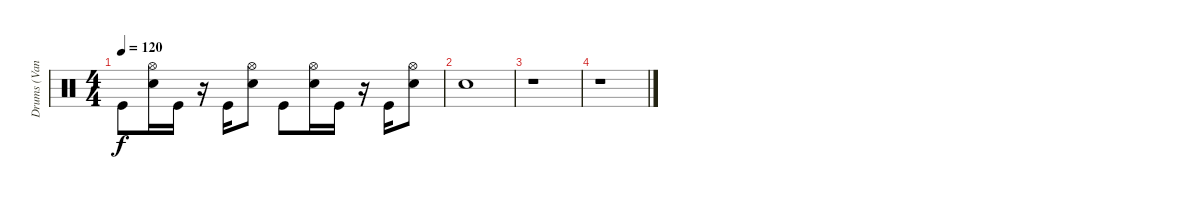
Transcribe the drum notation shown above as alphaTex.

\track ("Drums (Vandel)" "Drums (Van") {instrument percussion}
\staff {score}
\articulation defaults
\ts (4 4)
\tempo 120
\clef neutral
\ks c "Kick (hit)".8{dy f}
("Hi-Hat (open)" "Snare (hit) 2").16 "Kick (hit)".16 r.16 "Kick (hit)".16 ("Hi-Hat (open)" "Snare (hit) 2").8 "Kick (hit)".8 ("Hi-Hat (open)" "Snare (hit) 2").16 "Kick (hit)".16 r.16 "Kick (hit)".16 ("Hi-Hat (open)" "Snare (hit) 2").8 |
"Snare (hit) 2".1 |
r.1 |
r.1
